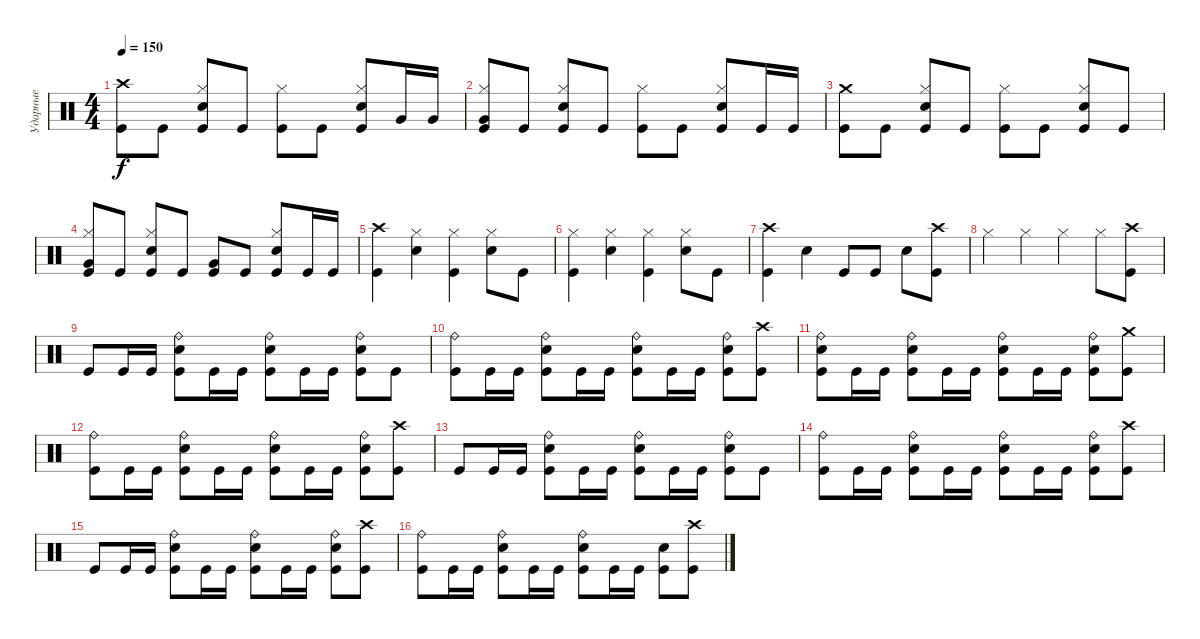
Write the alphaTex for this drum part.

\track ("Ударные" "Ударные") {instrument percussion}
\staff {score}
\articulation defaults
\ts (4 4)
\tempo 150
\clef neutral
\ks c
("Crash high (hit)" "Kick (hit)").8{dy f} "Kick (hit)".8 ("Hi-Hat (closed)" "Electric Snare (hit)" "Kick (hit)").8 "Kick (hit)".8 ("Hi-Hat (closed)" "Kick (hit)").8 "Kick (hit)".8 ("Hi-Hat (closed)" "Electric Snare (hit)" "Kick (hit)").8 "Very Low Tom (hit)".16 "Very Low Tom (hit)".16 |
("Hi-Hat (closed)" "Very Low Tom (hit)" "Kick (hit)").8 "Kick (hit)".8 ("Hi-Hat (closed)" "Electric Snare (hit)" "Kick (hit)").8 "Kick (hit)".8 ("Hi-Hat (closed)" "Kick (hit)").8 "Kick (hit)".8 ("Hi-Hat (closed)" "Electric Snare (hit)" "Kick (hit)").8 "Kick (hit)".16 "Kick (hit)".16 |
("Crash medium (hit)" "Kick (hit)").8 "Kick (hit)".8 ("Hi-Hat (closed)" "Electric Snare (hit)" "Kick (hit)").8 "Kick (hit)".8 ("Hi-Hat (closed)" "Kick (hit)").8 "Kick (hit)".8 ("Hi-Hat (closed)" "Electric Snare (hit)" "Kick (hit)").8 "Kick (hit)".8 |
("Hi-Hat (closed)" "Very Low Tom (hit)" "Kick (hit)").8 "Kick (hit)".8 ("Hi-Hat (closed)" "Electric Snare (hit)" "Kick (hit)").8 "Kick (hit)".8 ("Very Low Tom (hit)" "Kick (hit)").8 "Kick (hit)".8 ("Hi-Hat (closed)" "Electric Snare (hit)" "Kick (hit)").8 "Kick (hit)".16 "Kick (hit)".16 |
("Crash high (hit)" "Kick (hit)").4 ("Hi-Hat (closed)" "Electric Snare (hit)").4 ("Hi-Hat (closed)" "Kick (hit)").4 ("Hi-Hat (closed)" "Electric Snare (hit)").8 "Kick (hit)".8 |
("Hi-Hat (closed)" "Kick (hit)").4 ("Hi-Hat (closed)" "Electric Snare (hit)").4 ("Hi-Hat (closed)" "Kick (hit)").4 ("Hi-Hat (closed)" "Electric Snare (hit)").8 "Kick (hit)".8 |
("Crash high (hit)" "Kick (hit)").4 "Electric Snare (hit)".4 "Kick (hit)".8 "Kick (hit)".8 "Electric Snare (hit)".8 ("Crash high (hit)" "Kick (hit)").8 |
"Hi-Hat (closed)".4 "Hi-Hat (closed)".4 "Hi-Hat (closed)".4 "Hi-Hat (closed)".8 ("Crash high (hit)" "Kick (hit)").8 |
"Kick (hit)".8 "Kick (hit)".16 "Kick (hit)".16 ("Ride (bell)" "Electric Snare (hit)" "Kick (hit)").8 "Kick (hit)".16 "Kick (hit)".16 ("Ride (bell)" "Electric Snare (hit)" "Kick (hit)").8 "Kick (hit)".16 "Kick (hit)".16 ("Ride (bell)" "Electric Snare (hit)" "Kick (hit)").8 "Kick (hit)".8 |
("Ride (bell)" "Kick (hit)").8 "Kick (hit)".16 "Kick (hit)".16 ("Ride (bell)" "Electric Snare (hit)" "Kick (hit)").8 "Kick (hit)".16 "Kick (hit)".16 ("Ride (bell)" "Electric Snare (hit)" "Kick (hit)").8 "Kick (hit)".16 "Kick (hit)".16 ("Ride (bell)" "Electric Snare (hit)" "Kick (hit)").8 ("Crash high (hit)" "Kick (hit)").8 |
("Ride (bell)" "Electric Snare (hit)" "Kick (hit)").8 "Kick (hit)".16 "Kick (hit)".16 ("Ride (bell)" "Electric Snare (hit)" "Kick (hit)").8 "Kick (hit)".16 "Kick (hit)".16 ("Ride (bell)" "Electric Snare (hit)" "Kick (hit)").8 "Kick (hit)".16 "Kick (hit)".16 ("Ride (bell)" "Electric Snare (hit)" "Kick (hit)").8 ("Crash medium (hit)" "Kick (hit)").8 |
("Ride (bell)" "Kick (hit)").8 "Kick (hit)".16 "Kick (hit)".16 ("Ride (bell)" "Electric Snare (hit)" "Kick (hit)").8 "Kick (hit)".16 "Kick (hit)".16 ("Ride (bell)" "Electric Snare (hit)" "Kick (hit)").8 "Kick (hit)".16 "Kick (hit)".16 ("Ride (bell)" "Electric Snare (hit)" "Kick (hit)").8 ("Crash high (hit)" "Kick (hit)").8 |
"Kick (hit)".8 "Kick (hit)".16 "Kick (hit)".16 ("Ride (bell)" "Electric Snare (hit)" "Kick (hit)").8 "Kick (hit)".16 "Kick (hit)".16 ("Ride (bell)" "Electric Snare (hit)" "Kick (hit)").8 "Kick (hit)".16 "Kick (hit)".16 ("Ride (bell)" "Electric Snare (hit)" "Kick (hit)").8 "Kick (hit)".8 |
("Ride (bell)" "Kick (hit)").8 "Kick (hit)".16 "Kick (hit)".16 ("Ride (bell)" "Electric Snare (hit)" "Kick (hit)").8 "Kick (hit)".16 "Kick (hit)".16 ("Ride (bell)" "Electric Snare (hit)" "Kick (hit)").8 "Kick (hit)".16 "Kick (hit)".16 ("Ride (bell)" "Electric Snare (hit)" "Kick (hit)").8 ("Crash high (hit)" "Kick (hit)").8 |
"Kick (hit)".8 "Kick (hit)".16 "Kick (hit)".16 ("Ride (bell)" "Electric Snare (hit)" "Kick (hit)").8 "Kick (hit)".16 "Kick (hit)".16 ("Ride (bell)" "Electric Snare (hit)" "Kick (hit)").8 "Kick (hit)".16 "Kick (hit)".16 ("Ride (bell)" "Electric Snare (hit)" "Kick (hit)").8 ("Crash high (hit)" "Kick (hit)").8 |
("Ride (bell)" "Kick (hit)").8 "Kick (hit)".16 "Kick (hit)".16 ("Ride (bell)" "Electric Snare (hit)" "Kick (hit)").8 "Kick (hit)".16 "Kick (hit)".16 ("Ride (bell)" "Electric Snare (hit)" "Kick (hit)").8 "Kick (hit)".16 "Kick (hit)".16 ("Electric Snare (hit)" "Kick (hit)").8 ("Crash high (hit)" "Kick (hit)").8
